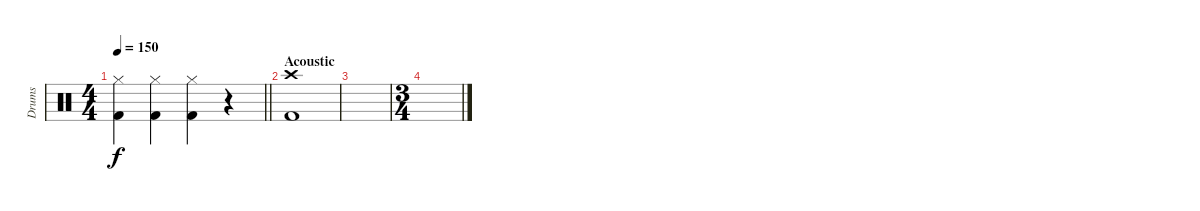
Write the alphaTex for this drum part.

\track ("Drums" "Drums") {instrument percussion}
\staff {score}
\articulation defaults
\ts (4 4)
\tempo 150
\clef neutral
\barLineRight lightlight
\ks c
("Hi-Hat (closed)" "Kick (hit) 2").4{dy f} ("Hi-Hat (closed)" "Kick (hit) 2").4 ("Hi-Hat (closed)" "Kick (hit) 2").4 r.4 |
\section ("" "Acoustic")
("Crash high (hit)" "Kick (hit) 2").1 |
|
\ts (3 4)
